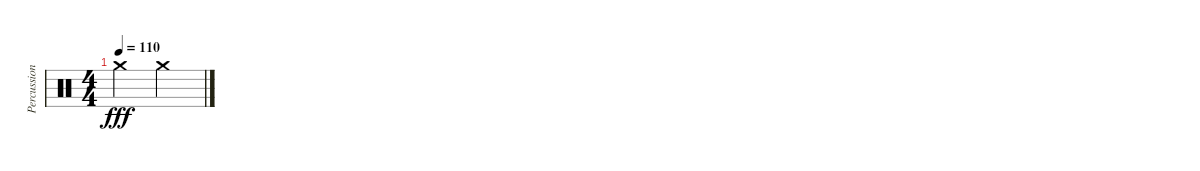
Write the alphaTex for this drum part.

\track ("Percussion" "Percussion") {instrument percussion}
\staff {score}
\articulation defaults
\ts (4 4)
\tempo 110
\clef neutral
\ks c "Crash medium (hit)".2{dy fff} "Crash medium (hit)".2
